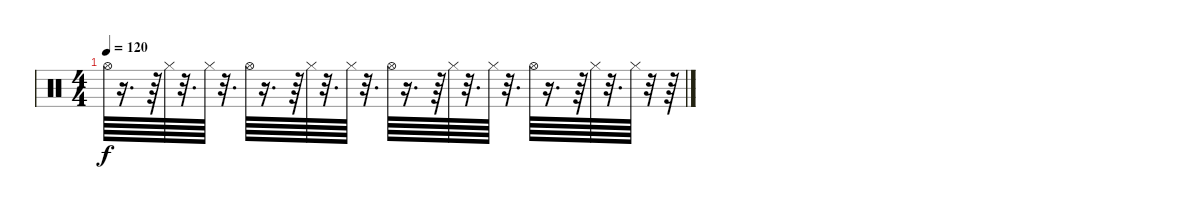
\track "" {instrument percussion}
\staff {score}
\articulation defaults
\ts (4 4)
\tempo 120
\clef neutral
\ks c "Hi-Hat (open)".64{dy f}
r.16{d} r.64 "Hi-Hat (closed)".64 r.32{d} "Hi-Hat (closed)".64 r.32{d} "Hi-Hat (open)".64 r.16{d} r.64 "Hi-Hat (closed)".64 r.32{d} "Hi-Hat (closed)".64 r.32{d} "Hi-Hat (open)".64 r.16{d} r.64 "Hi-Hat (closed)".64 r.32{d} "Hi-Hat (closed)".64 r.32{d} "Hi-Hat (open)".64 r.16{d} r.64 "Hi-Hat (closed)".64 r.32{d} "Hi-Hat (closed)".64 r.32 r.64
